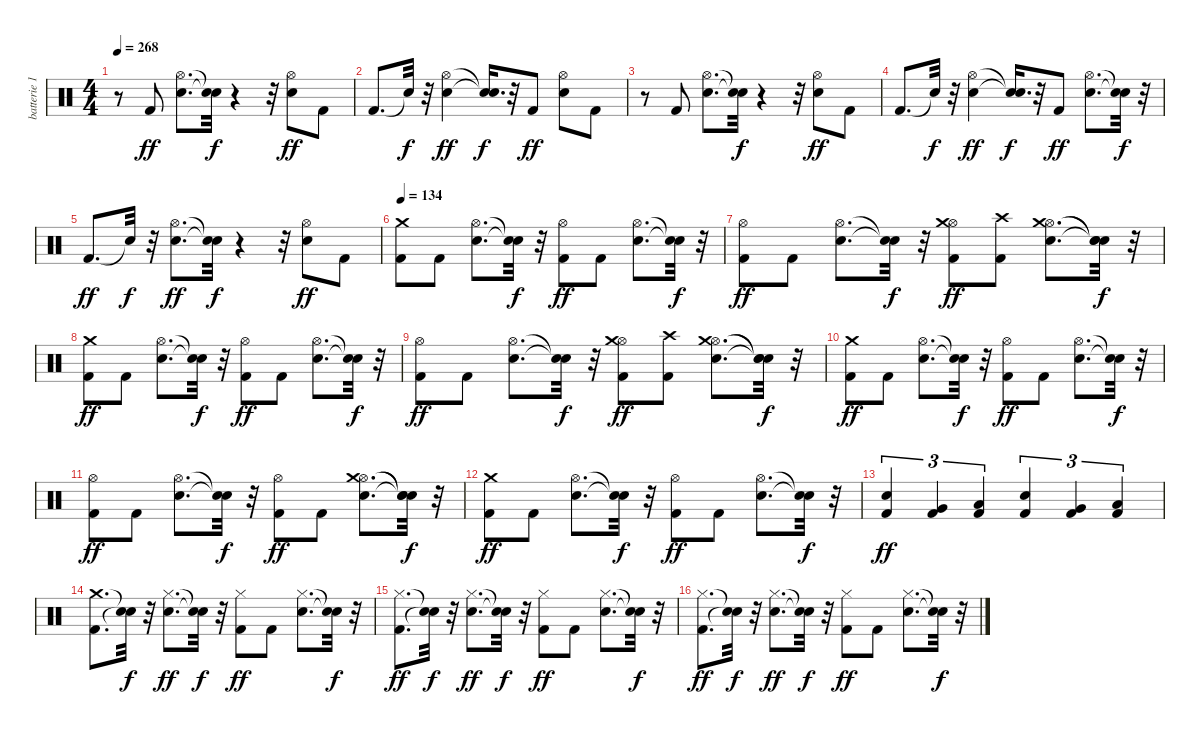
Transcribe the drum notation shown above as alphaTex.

\track ("batterie 1" "batterie 1") {instrument percussion}
\staff {score}
\articulation defaults
\ts (4 4)
\tempo 268
\clef neutral
\ks c
r.8{dy f} "Kick (hit) 2".8{dy ff} ("Electric Snare (hit)" "Hi-Hat (open)").8{d} ("Snare (hit)"{t} "Snare (hit)"{t}).32{dy f} r.4 r.32 ("Electric Snare (hit)" "Hi-Hat (open)").8{dy ff} "Kick (hit) 2".8 |
"Kick (hit) 2".8{d} "Snare (hit)"{t}.32{dy f} r.32 ("Electric Snare (hit)" "Hi-Hat (open)").4{dy ff} ("Snare (hit)"{t} "Snare (hit)"{t}).16{d dy f} r.32 "Kick (hit) 2".8{dy ff} ("Electric Snare (hit)" "Hi-Hat (open)").8 "Kick (hit) 2".8 |
r.8 "Kick (hit) 2".8 ("Electric Snare (hit)" "Hi-Hat (open)").8{d} ("Snare (hit)"{t} "Snare (hit)"{t}).32{dy f} r.4 r.32 ("Electric Snare (hit)" "Hi-Hat (open)").8{dy ff} "Kick (hit) 2".8 |
"Kick (hit) 2".8{d} "Snare (hit)"{t}.32{dy f} r.32 ("Electric Snare (hit)" "Hi-Hat (open)").4{dy ff} ("Snare (hit)"{t} "Snare (hit)"{t}).16{d dy f} r.32 "Kick (hit) 2".8{dy ff} ("Electric Snare (hit)" "Hi-Hat (open)").8{d} ("Snare (hit)"{t} "Snare (hit)"{t}).32{dy f} r.32 |
"Kick (hit) 2".8{d dy ff} "Snare (hit)"{t}.32{dy f} r.32 ("Electric Snare (hit)" "Hi-Hat (open)").8{d dy ff} ("Snare (hit)"{t} "Snare (hit)"{t}).32{dy f} r.4 r.32 ("Electric Snare (hit)" "Hi-Hat (open)").8{dy ff} "Kick (hit) 2".8 |
\tempo 134
("Kick (hit) 2" "Crash medium (hit)").8 "Kick (hit) 2".8 ("Electric Snare (hit)" "Hi-Hat (open)").8{d} ("Snare (hit)"{t} "Snare (hit)"{t}).32{dy f} r.32 ("Kick (hit) 2" "Hi-Hat (open)").8{dy ff} "Kick (hit) 2".8 ("Electric Snare (hit)" "Hi-Hat (open)").8{d} ("Snare (hit)"{t} "Snare (hit)"{t}).32{dy f} r.32 |
("Kick (hit) 2" "Hi-Hat (open)").8{dy ff} "Kick (hit) 2".8 ("Electric Snare (hit)" "Hi-Hat (open)").8{d} ("Snare (hit)"{t} "Snare (hit)"{t}).32{dy f} r.32 ("Kick (hit) 2" "Hi-Hat (open)" "Crash medium (hit)").8{dy ff} ("Kick (hit) 2" "Crash high (hit)").8 ("Electric Snare (hit)" "Hi-Hat (open)" "Crash medium (hit)").8{d} ("Snare (hit)"{t} "Snare (hit)"{t} "Snare (hit)"{t}).32{dy f} r.32 |
("Kick (hit) 2" "Crash medium (hit)").8{dy ff} "Kick (hit) 2".8 ("Electric Snare (hit)" "Hi-Hat (open)").8{d} ("Snare (hit)"{t} "Snare (hit)"{t}).32{dy f} r.32 ("Kick (hit) 2" "Hi-Hat (open)").8{dy ff} "Kick (hit) 2".8 ("Electric Snare (hit)" "Hi-Hat (open)").8{d} ("Snare (hit)"{t} "Snare (hit)"{t}).32{dy f} r.32 |
("Kick (hit) 2" "Hi-Hat (open)").8{dy ff} "Kick (hit) 2".8 ("Electric Snare (hit)" "Hi-Hat (open)").8{d} ("Snare (hit)"{t} "Snare (hit)"{t}).32{dy f} r.32 ("Kick (hit) 2" "Hi-Hat (open)" "Crash medium (hit)").8{dy ff} ("Kick (hit) 2" "Crash high (hit)").8 ("Electric Snare (hit)" "Hi-Hat (open)" "Crash medium (hit)").8{d} ("Snare (hit)"{t} "Snare (hit)"{t} "Snare (hit)"{t}).32{dy f} r.32 |
("Kick (hit) 2" "Crash medium (hit)").8{dy ff} "Kick (hit) 2".8 ("Electric Snare (hit)" "Hi-Hat (open)").8{d} ("Snare (hit)"{t} "Snare (hit)"{t}).32{dy f} r.32 ("Kick (hit) 2" "Hi-Hat (open)").8{dy ff} "Kick (hit) 2".8 ("Electric Snare (hit)" "Hi-Hat (open)").8{d} ("Snare (hit)"{t} "Snare (hit)"{t}).32{dy f} r.32 |
("Kick (hit) 2" "Hi-Hat (open)").8{dy ff} "Kick (hit) 2".8 ("Electric Snare (hit)" "Hi-Hat (open)").8{d} ("Snare (hit)"{t} "Snare (hit)"{t}).32{dy f} r.32 ("Kick (hit) 2" "Hi-Hat (open)").8{dy ff} "Kick (hit) 2".8 ("Electric Snare (hit)" "Hi-Hat (open)" "Crash medium (hit)").8{d} ("Snare (hit)"{t} "Snare (hit)"{t} "Snare (hit)"{t}).32{dy f} r.32 |
("Kick (hit) 2" "Crash medium (hit)").8{dy ff} "Kick (hit) 2".8 ("Electric Snare (hit)" "Hi-Hat (open)").8{d} ("Snare (hit)"{t} "Snare (hit)"{t}).32{dy f} r.32 ("Kick (hit) 2" "Hi-Hat (open)").8{dy ff} "Kick (hit) 2".8 ("Electric Snare (hit)" "Hi-Hat (open)").8{d} ("Snare (hit)"{t} "Snare (hit)"{t}).32{dy f} r.32 |
("Kick (hit) 2" "Electric Snare (hit)").4{tu (3 2) dy ff} ("Kick (hit) 2" "Very Low Tom (hit)").4{tu (3 2)} ("Kick (hit) 2" "Low Floor Tom (hit)").4{tu (3 2)} ("Kick (hit) 2" "Electric Snare (hit)").4{tu (3 2)} ("Kick (hit) 2" "Very Low Tom (hit)").4{tu (3 2)} ("Kick (hit) 2" "Low Floor Tom (hit)").4{tu (3 2)} |
("Kick (hit) 2" "Crash medium (hit)").8{d} ("Snare (hit)"{t} "Snare (hit)"{t}).32{dy f} r.32 ("Electric Snare (hit)" "Hi-Hat (closed)").8{d dy ff} ("Snare (hit)"{t} "Snare (hit)"{t}).32{dy f} r.32 ("Kick (hit) 2" "Hi-Hat (closed)").8{dy ff} "Kick (hit) 2".8 ("Electric Snare (hit)" "Hi-Hat (closed)").8{d} ("Snare (hit)"{t} "Snare (hit)"{t}).32{dy f} r.32 |
("Kick (hit) 2" "Hi-Hat (closed)").8{d dy ff} ("Snare (hit)"{t} "Snare (hit)"{t}).32{dy f} r.32 ("Electric Snare (hit)" "Hi-Hat (closed)").8{d dy ff} ("Snare (hit)"{t} "Snare (hit)"{t}).32{dy f} r.32 ("Kick (hit) 2" "Hi-Hat (closed)").8{dy ff} "Kick (hit) 2".8 ("Electric Snare (hit)" "Hi-Hat (closed)").8{d} ("Snare (hit)"{t} "Snare (hit)"{t}).32{dy f} r.32 |
("Kick (hit) 2" "Hi-Hat (closed)").8{d dy ff} ("Snare (hit)"{t} "Snare (hit)"{t}).32{dy f} r.32 ("Electric Snare (hit)" "Hi-Hat (closed)").8{d dy ff} ("Snare (hit)"{t} "Snare (hit)"{t}).32{dy f} r.32 ("Kick (hit) 2" "Hi-Hat (closed)").8{dy ff} "Kick (hit) 2".8 ("Electric Snare (hit)" "Hi-Hat (closed)").8{d} ("Snare (hit)"{t} "Snare (hit)"{t}).32{dy f} r.32
